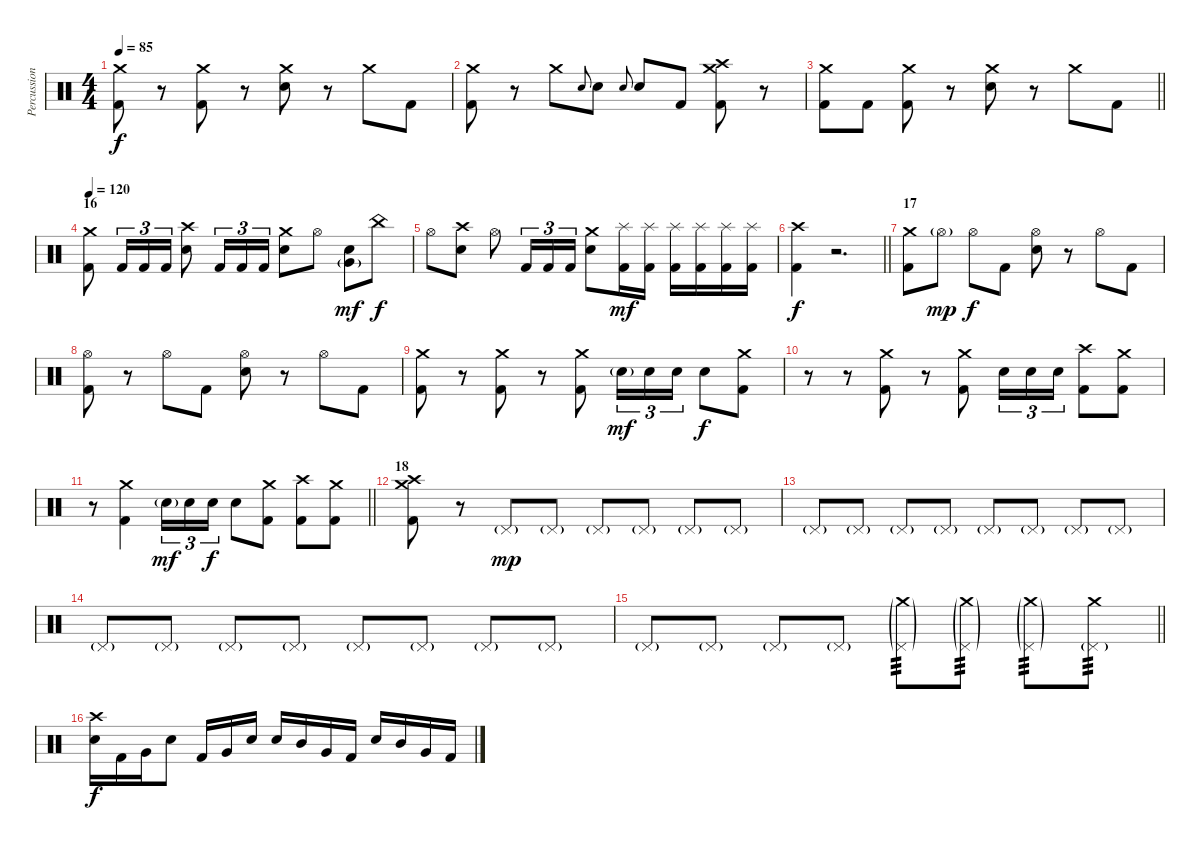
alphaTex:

\track ("Percussion" "Percussion") {instrument percussion}
\staff {score}
\articulation defaults
\ts (4 4)
\tempo 85
\clef neutral
\ks c
("Crash medium (hit)" "Kick (hit) 2").8{dy f} r.8 ("Crash medium (hit)" "Kick (hit) 2").8 r.8 ("Crash medium (hit)" "Snare (hit) 2").8 r.8 "Crash medium (hit)".8 "Kick (hit) 2".8 |
("Crash medium (hit)" "Kick (hit) 2").8 r.8 "Crash medium (hit)".8 "Snare (hit) 2".8{gr onbeat} "Snare (hit) 2".8 "Snare (hit) 2".8{gr onbeat} "Snare (hit) 2".8 "Kick (hit) 2".8 ("Crash medium (hit)" "Crash high (hit)" "Kick (hit) 2").8 r.8 |
\barLineRight lightlight
("Crash medium (hit)" "Kick (hit) 2").8 "Kick (hit) 2".8 ("Crash medium (hit)" "Kick (hit) 2").8 r.8 ("Crash medium (hit)" "Snare (hit) 2").8 r.8 "Crash medium (hit)".8 "Kick (hit) 2".8 |
\section ("" "16")
\tempo 120
("Crash medium (hit)" "Kick (hit) 2").8 "Kick (hit) 2".16{tu (3 2)} "Kick (hit) 2".16{tu (3 2)} "Kick (hit) 2".16{tu (3 2)} ("Crash high (hit)" "Snare (hit) 2").8 "Kick (hit) 2".16{tu (3 2)} "Kick (hit) 2".16{tu (3 2)} "Kick (hit) 2".16{tu (3 2)} ("Crash medium (hit)" "Snare (hit) 2").8 "Hi-Hat (open)".8 ("Snare (hit) 2" "Very Low Tom (hit)"{g}).8{bu 60 dy mf} "China (hit)".8{dy f} |
"Hi-Hat (open)".8 ("Crash high (hit)" "Snare (hit) 2").8 "Hi-Hat (open)".8 "Kick (hit) 2".16{tu (3 2)} "Kick (hit) 2".16{tu (3 2)} "Kick (hit) 2".16{tu (3 2)} ("Crash medium (hit)" "Snare (hit) 2").8 ("Splash (hit)" "Kick (hit) 2").16{dy mf} ("Splash (hit)" "Kick (hit) 2").16 ("Splash (hit)" "Kick (hit) 2").16 ("Splash (hit)" "Kick (hit) 2").16 ("Splash (hit)" "Kick (hit) 2").16 ("Splash (hit)" "Kick (hit) 2").16 |
\barLineRight lightlight
("Crash high (hit)" "Kick (hit) 2").4{dy f} r.2{d} |
\section ("" "17")
("Crash medium (hit)" "Kick (hit) 2").8 "Hi-Hat (open)"{g}.8{dy mp} "Hi-Hat (open)".8{dy f} "Kick (hit) 2".8 ("Hi-Hat (open)" "Snare (hit) 2").8 r.8 "Hi-Hat (open)".8 "Kick (hit) 2".8 |
("Hi-Hat (open)" "Kick (hit) 2").8 r.8 "Hi-Hat (open)".8 "Kick (hit) 2".8 ("Hi-Hat (open)" "Snare (hit) 2").8 r.8 "Hi-Hat (open)".8 "Kick (hit) 2".8 |
("Crash medium (hit)" "Kick (hit) 2").8 r.8 ("Crash medium (hit)" "Kick (hit) 2").8 r.8 ("Crash medium (hit)" "Kick (hit) 2").8 "Snare (hit) 2"{g}.16{tu (3 2) dy mf} "Snare (hit) 2".16{tu (3 2)} "Snare (hit) 2".16{tu (3 2)} "Snare (hit) 2".8{dy f} ("Crash medium (hit)" "Kick (hit) 2").8 |
r.8 r.8 ("Crash medium (hit)" "Kick (hit) 2").8 r.8 ("Crash medium (hit)" "Kick (hit) 2").8 "Snare (hit) 2".16{tu (3 2)} "Snare (hit) 2".16{tu (3 2)} "Snare (hit) 2".16{tu (3 2)} ("Crash high (hit)" "Kick (hit) 2").8 ("Crash medium (hit)" "Kick (hit) 2").8 |
\barLineRight lightlight
r.8 ("Crash medium (hit)" "Kick (hit) 2").4 "Snare (hit) 2"{g}.16{tu (3 2) dy mf} "Snare (hit) 2".16{tu (3 2)} "Snare (hit) 2".16{tu (3 2) dy f} "Snare (hit) 2".8 ("Crash medium (hit)" "Kick (hit) 2").8 ("Crash high (hit)" "Kick (hit) 2").8 ("Crash medium (hit)" "Kick (hit) 2").8 |
\section ("" "18")
("Crash medium (hit)" "Crash high (hit)" "Kick (hit) 2").8 r.8 "Pedal Hi-Hat (hit)"{g}.8{dy mp} "Pedal Hi-Hat (hit)"{g}.8 "Pedal Hi-Hat (hit)"{g}.8 "Pedal Hi-Hat (hit)"{g}.8 "Pedal Hi-Hat (hit)"{g}.8 "Pedal Hi-Hat (hit)"{g}.8 |
"Pedal Hi-Hat (hit)"{g}.8 "Pedal Hi-Hat (hit)"{g}.8 "Pedal Hi-Hat (hit)"{g}.8 "Pedal Hi-Hat (hit)"{g}.8 "Pedal Hi-Hat (hit)"{g}.8 "Pedal Hi-Hat (hit)"{g}.8 "Pedal Hi-Hat (hit)"{g}.8 "Pedal Hi-Hat (hit)"{g}.8 |
"Pedal Hi-Hat (hit)"{g}.8 "Pedal Hi-Hat (hit)"{g}.8 "Pedal Hi-Hat (hit)"{g}.8 "Pedal Hi-Hat (hit)"{g}.8 "Pedal Hi-Hat (hit)"{g}.8 "Pedal Hi-Hat (hit)"{g}.8 "Pedal Hi-Hat (hit)"{g}.8 "Pedal Hi-Hat (hit)"{g}.8 |
\barLineRight lightlight "Pedal Hi-Hat (hit)"{g}.8 "Pedal Hi-Hat (hit)"{g}.8 "Pedal Hi-Hat (hit)"{g}.8 "Pedal Hi-Hat (hit)"{g}.8
("Crash medium (hit)"{g} "Pedal Hi-Hat (hit)"{g}).8{tp 3} ("Crash medium (hit)"{g} "Pedal Hi-Hat (hit)"{g}).8{tp 3} ("Crash medium (hit)"{g} "Pedal Hi-Hat (hit)"{g}).8{tp 3} ("Crash medium (hit)" "Pedal Hi-Hat (hit)"{g}).8{tp 3} |
\section ("" "")
("Crash high (hit)" "Snare (hit) 2").16{dy f} "Kick (hit) 2".16 "Very Low Tom (hit)".16 "Snare (hit) 2".8 "Kick (hit) 2".16 "Very Low Tom (hit)".16 "Snare (hit) 2".16 "Snare (hit) 2".16 "Mid Tom (hit)".16 "Very Low Tom (hit)".16 "Kick (hit) 2".16 "Snare (hit) 2".16 "Mid Tom (hit)".16 "Very Low Tom (hit)".16 "Kick (hit) 2".16
